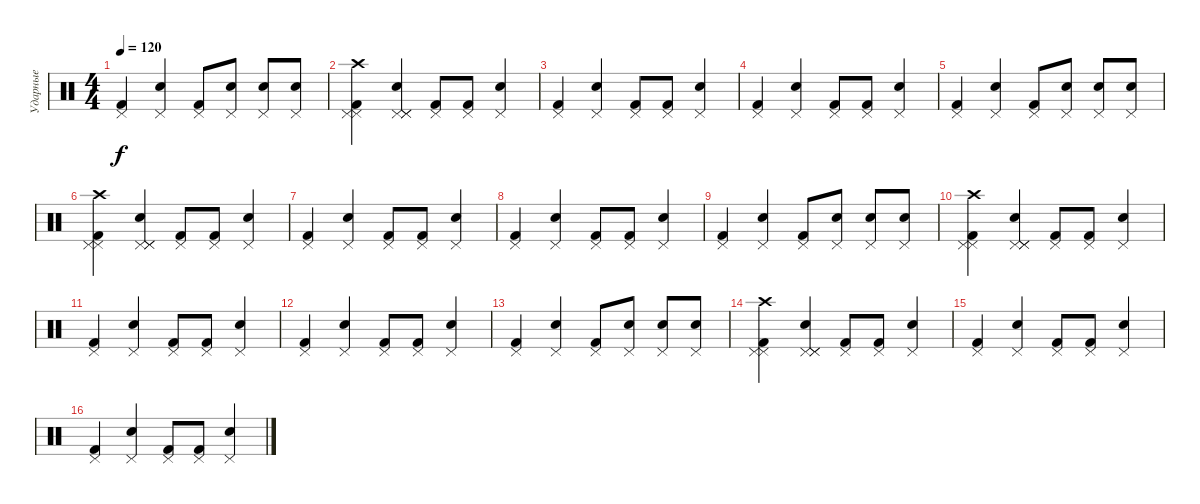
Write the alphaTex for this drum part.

\track ("Ударные" "Ударные") {instrument percussion}
\staff {score}
\articulation defaults
\ts (4 4)
\tempo 120
\clef neutral
\ks c
("Kick (hit) 2" "Pedal Hi-Hat (hit)").4{dy f} ("Electric Snare (hit)" "Pedal Hi-Hat (hit)").4 ("Kick (hit) 2" "Pedal Hi-Hat (hit)").8 ("Electric Snare (hit)" "Pedal Hi-Hat (hit)").8 ("Electric Snare (hit)" "Pedal Hi-Hat (hit)").8 ("Electric Snare (hit)" "Pedal Hi-Hat (hit)").8 |
("Kick (hit) 2" "Pedal Hi-Hat (hit)" "Crash high (hit)" "Pedal Hi-Hat (hit)").4 ("Electric Snare (hit)" "Pedal Hi-Hat (hit)" "Pedal Hi-Hat (hit)" "Pedal Hi-Hat (hit)").4 ("Kick (hit) 2" "Pedal Hi-Hat (hit)").8 ("Kick (hit) 2" "Pedal Hi-Hat (hit)").8 ("Electric Snare (hit)" "Pedal Hi-Hat (hit)").4 |
("Kick (hit) 2" "Pedal Hi-Hat (hit)").4 ("Electric Snare (hit)" "Pedal Hi-Hat (hit)").4 ("Kick (hit) 2" "Pedal Hi-Hat (hit)").8 ("Kick (hit) 2" "Pedal Hi-Hat (hit)").8 ("Electric Snare (hit)" "Pedal Hi-Hat (hit)").4 |
("Kick (hit) 2" "Pedal Hi-Hat (hit)").4 ("Electric Snare (hit)" "Pedal Hi-Hat (hit)").4 ("Kick (hit) 2" "Pedal Hi-Hat (hit)").8 ("Kick (hit) 2" "Pedal Hi-Hat (hit)").8 ("Electric Snare (hit)" "Pedal Hi-Hat (hit)").4 |
("Kick (hit) 2" "Pedal Hi-Hat (hit)").4 ("Electric Snare (hit)" "Pedal Hi-Hat (hit)").4 ("Kick (hit) 2" "Pedal Hi-Hat (hit)").8 ("Electric Snare (hit)" "Pedal Hi-Hat (hit)").8 ("Electric Snare (hit)" "Pedal Hi-Hat (hit)").8 ("Electric Snare (hit)" "Pedal Hi-Hat (hit)").8 |
("Kick (hit) 2" "Pedal Hi-Hat (hit)" "Crash high (hit)" "Pedal Hi-Hat (hit)").4 ("Electric Snare (hit)" "Pedal Hi-Hat (hit)" "Pedal Hi-Hat (hit)" "Pedal Hi-Hat (hit)").4 ("Kick (hit) 2" "Pedal Hi-Hat (hit)").8 ("Kick (hit) 2" "Pedal Hi-Hat (hit)").8 ("Electric Snare (hit)" "Pedal Hi-Hat (hit)").4 |
("Kick (hit) 2" "Pedal Hi-Hat (hit)").4 ("Electric Snare (hit)" "Pedal Hi-Hat (hit)").4 ("Kick (hit) 2" "Pedal Hi-Hat (hit)").8 ("Kick (hit) 2" "Pedal Hi-Hat (hit)").8 ("Electric Snare (hit)" "Pedal Hi-Hat (hit)").4 |
("Kick (hit) 2" "Pedal Hi-Hat (hit)").4 ("Electric Snare (hit)" "Pedal Hi-Hat (hit)").4 ("Kick (hit) 2" "Pedal Hi-Hat (hit)").8 ("Kick (hit) 2" "Pedal Hi-Hat (hit)").8 ("Electric Snare (hit)" "Pedal Hi-Hat (hit)").4 |
("Kick (hit) 2" "Pedal Hi-Hat (hit)").4 ("Electric Snare (hit)" "Pedal Hi-Hat (hit)").4 ("Kick (hit) 2" "Pedal Hi-Hat (hit)").8 ("Electric Snare (hit)" "Pedal Hi-Hat (hit)").8 ("Electric Snare (hit)" "Pedal Hi-Hat (hit)").8 ("Electric Snare (hit)" "Pedal Hi-Hat (hit)").8 |
("Kick (hit) 2" "Pedal Hi-Hat (hit)" "Crash high (hit)" "Pedal Hi-Hat (hit)").4 ("Electric Snare (hit)" "Pedal Hi-Hat (hit)" "Pedal Hi-Hat (hit)" "Pedal Hi-Hat (hit)").4 ("Kick (hit) 2" "Pedal Hi-Hat (hit)").8 ("Kick (hit) 2" "Pedal Hi-Hat (hit)").8 ("Electric Snare (hit)" "Pedal Hi-Hat (hit)").4 |
("Kick (hit) 2" "Pedal Hi-Hat (hit)").4 ("Electric Snare (hit)" "Pedal Hi-Hat (hit)").4 ("Kick (hit) 2" "Pedal Hi-Hat (hit)").8 ("Kick (hit) 2" "Pedal Hi-Hat (hit)").8 ("Electric Snare (hit)" "Pedal Hi-Hat (hit)").4 |
("Kick (hit) 2" "Pedal Hi-Hat (hit)").4 ("Electric Snare (hit)" "Pedal Hi-Hat (hit)").4 ("Kick (hit) 2" "Pedal Hi-Hat (hit)").8 ("Kick (hit) 2" "Pedal Hi-Hat (hit)").8 ("Electric Snare (hit)" "Pedal Hi-Hat (hit)").4 |
("Kick (hit) 2" "Pedal Hi-Hat (hit)").4 ("Electric Snare (hit)" "Pedal Hi-Hat (hit)").4 ("Kick (hit) 2" "Pedal Hi-Hat (hit)").8 ("Electric Snare (hit)" "Pedal Hi-Hat (hit)").8 ("Electric Snare (hit)" "Pedal Hi-Hat (hit)").8 ("Electric Snare (hit)" "Pedal Hi-Hat (hit)").8 |
("Kick (hit) 2" "Pedal Hi-Hat (hit)" "Crash high (hit)" "Pedal Hi-Hat (hit)").4 ("Electric Snare (hit)" "Pedal Hi-Hat (hit)" "Pedal Hi-Hat (hit)" "Pedal Hi-Hat (hit)").4 ("Kick (hit) 2" "Pedal Hi-Hat (hit)").8 ("Kick (hit) 2" "Pedal Hi-Hat (hit)").8 ("Electric Snare (hit)" "Pedal Hi-Hat (hit)").4 |
("Kick (hit) 2" "Pedal Hi-Hat (hit)").4 ("Electric Snare (hit)" "Pedal Hi-Hat (hit)").4 ("Kick (hit) 2" "Pedal Hi-Hat (hit)").8 ("Kick (hit) 2" "Pedal Hi-Hat (hit)").8 ("Electric Snare (hit)" "Pedal Hi-Hat (hit)").4 |
("Kick (hit) 2" "Pedal Hi-Hat (hit)").4 ("Electric Snare (hit)" "Pedal Hi-Hat (hit)").4 ("Kick (hit) 2" "Pedal Hi-Hat (hit)").8 ("Kick (hit) 2" "Pedal Hi-Hat (hit)").8 ("Electric Snare (hit)" "Pedal Hi-Hat (hit)").4
